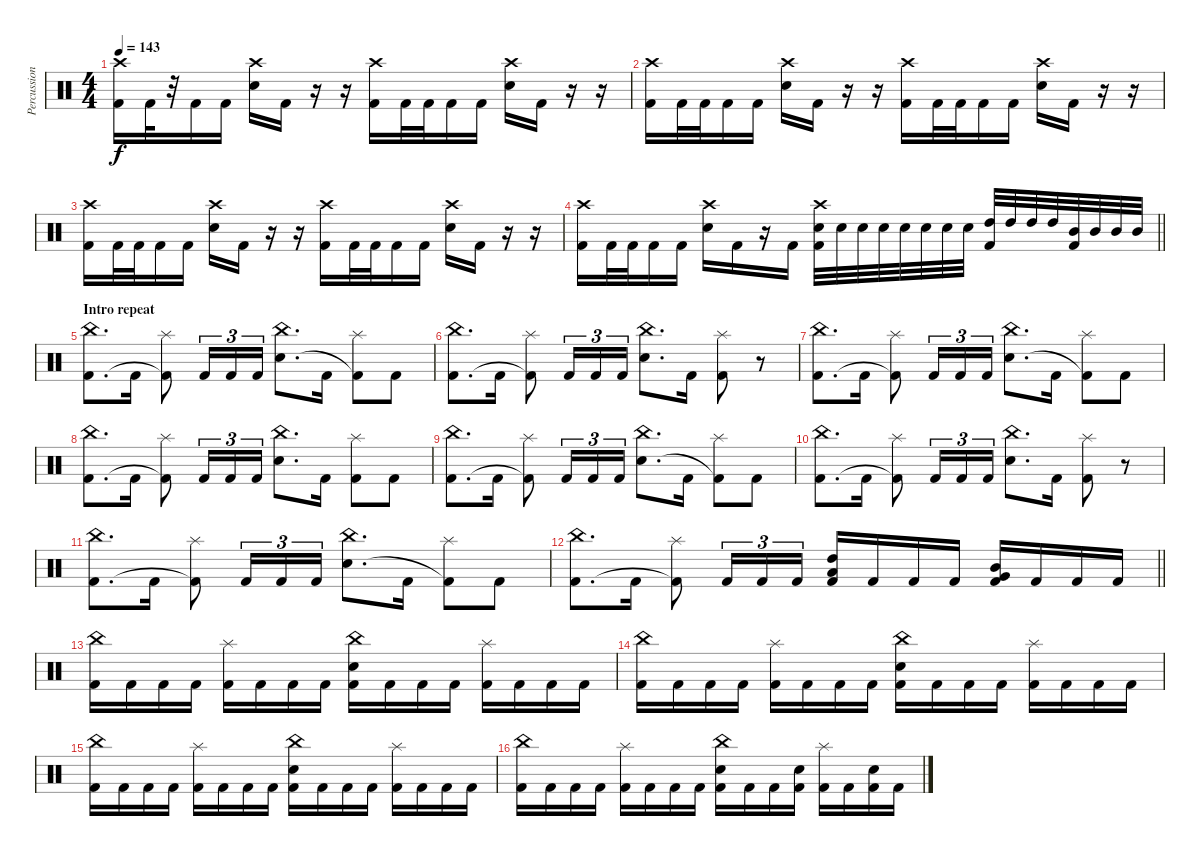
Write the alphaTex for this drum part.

\track ("Percussion" "Percussion") {instrument percussion}
\staff {score}
\articulation defaults
\ts (4 4)
\tempo 143
\clef neutral
\ks c
("Crash high (hit)" "Kick (hit) 2").16{dy f} "Kick (hit) 2".32 r.32 "Kick (hit) 2".16 "Kick (hit) 2".16 ("Crash high (hit)" "Electric Snare (hit)").16 "Kick (hit) 2".16 r.16 r.16 ("Crash high (hit)" "Kick (hit) 2").16 "Kick (hit) 2".32 "Kick (hit) 2".32 "Kick (hit) 2".16 "Kick (hit) 2".16 ("Crash high (hit)" "Electric Snare (hit)").16 "Kick (hit) 2".16 r.16 r.16 |
("Crash high (hit)" "Kick (hit) 2").16 "Kick (hit) 2".32 "Kick (hit) 2".32 "Kick (hit) 2".16 "Kick (hit) 2".16 ("Crash high (hit)" "Electric Snare (hit)").16 "Kick (hit) 2".16 r.16 r.16 ("Crash high (hit)" "Kick (hit) 2").16 "Kick (hit) 2".32 "Kick (hit) 2".32 "Kick (hit) 2".16 "Kick (hit) 2".16 ("Crash high (hit)" "Electric Snare (hit)").16 "Kick (hit) 2".16 r.16 r.16 |
("Crash high (hit)" "Kick (hit) 2").16 "Kick (hit) 2".32 "Kick (hit) 2".32 "Kick (hit) 2".16 "Kick (hit) 2".16 ("Crash high (hit)" "Electric Snare (hit)").16 "Kick (hit) 2".16 r.16 r.16 ("Crash high (hit)" "Kick (hit) 2").16 "Kick (hit) 2".32 "Kick (hit) 2".32 "Kick (hit) 2".16 "Kick (hit) 2".16 ("Crash high (hit)" "Electric Snare (hit)").16 "Kick (hit) 2".16 r.16 r.16 |
\barLineRight lightlight
("Crash high (hit)" "Kick (hit) 2").16 "Kick (hit) 2".32 "Kick (hit) 2".32 "Kick (hit) 2".16 "Kick (hit) 2".16 ("Crash high (hit)" "Electric Snare (hit)").16 "Kick (hit) 2".16 r.16 "Kick (hit) 2".16 ("Crash high (hit)" "Electric Snare (hit)" "Kick (hit) 2").32 "Electric Snare (hit)".32 "Electric Snare (hit)".32 "Electric Snare (hit)".32 "Electric Snare (hit)".32 "Electric Snare (hit)".32 "Electric Snare (hit)".32 "Electric Snare (hit)".32 ("High Tom (hit)" "Kick (hit) 2").32 "High Tom (hit)".32 "High Tom (hit)".32 "High Tom (hit)".32 ("Mid Tom (hit)" "Kick (hit) 2").32 "Mid Tom (hit)".32 "Mid Tom (hit)".32 "Mid Tom (hit)".32 |
\section ("" "Intro repeat")
("China (hit)" "Kick (hit) 2").8{d} "Kick (hit) 2".16 ("Splash (hit)" "Kick (hit) 2"{t}).8 "Kick (hit) 2".16{tu (3 2)} "Kick (hit) 2".16{tu (3 2)} "Kick (hit) 2".16{tu (3 2)} ("China (hit)" "Electric Snare (hit)").8{d} "Kick (hit) 2".16 ("Splash (hit)" "Kick (hit) 2"{t}).8 "Kick (hit) 2".8 |
("China (hit)" "Kick (hit) 2").8{d} "Kick (hit) 2".16 ("Splash (hit)" "Kick (hit) 2"{t}).8 "Kick (hit) 2".16{tu (3 2)} "Kick (hit) 2".16{tu (3 2)} "Kick (hit) 2".16{tu (3 2)} ("China (hit)" "Electric Snare (hit)").8{d} "Kick (hit) 2".16 ("Splash (hit)" "Kick (hit) 2").8 r.8 |
("China (hit)" "Kick (hit) 2").8{d} "Kick (hit) 2".16 ("Splash (hit)" "Kick (hit) 2"{t}).8 "Kick (hit) 2".16{tu (3 2)} "Kick (hit) 2".16{tu (3 2)} "Kick (hit) 2".16{tu (3 2)} ("China (hit)" "Electric Snare (hit)").8{d} "Kick (hit) 2".16 ("Splash (hit)" "Kick (hit) 2"{t}).8 "Kick (hit) 2".8 |
("China (hit)" "Kick (hit) 2").8{d} "Kick (hit) 2".16 ("Splash (hit)" "Kick (hit) 2"{t}).8 "Kick (hit) 2".16{tu (3 2)} "Kick (hit) 2".16{tu (3 2)} "Kick (hit) 2".16{tu (3 2)} ("China (hit)" "Electric Snare (hit)").8{d} "Kick (hit) 2".16 ("Splash (hit)" "Kick (hit) 2").8 "Kick (hit) 2".8 |
("China (hit)" "Kick (hit) 2").8{d} "Kick (hit) 2".16 ("Splash (hit)" "Kick (hit) 2"{t}).8 "Kick (hit) 2".16{tu (3 2)} "Kick (hit) 2".16{tu (3 2)} "Kick (hit) 2".16{tu (3 2)} ("China (hit)" "Electric Snare (hit)").8{d} "Kick (hit) 2".16 ("Splash (hit)" "Kick (hit) 2"{t}).8 "Kick (hit) 2".8 |
("China (hit)" "Kick (hit) 2").8{d} "Kick (hit) 2".16 ("Splash (hit)" "Kick (hit) 2"{t}).8 "Kick (hit) 2".16{tu (3 2)} "Kick (hit) 2".16{tu (3 2)} "Kick (hit) 2".16{tu (3 2)} ("China (hit)" "Electric Snare (hit)").8{d} "Kick (hit) 2".16 ("Splash (hit)" "Kick (hit) 2").8 r.8 |
("China (hit)" "Kick (hit) 2").8{d} "Kick (hit) 2".16 ("Splash (hit)" "Kick (hit) 2"{t}).8 "Kick (hit) 2".16{tu (3 2)} "Kick (hit) 2".16{tu (3 2)} "Kick (hit) 2".16{tu (3 2)} ("China (hit)" "Electric Snare (hit)").8{d} "Kick (hit) 2".16 ("Splash (hit)" "Kick (hit) 2"{t}).8 "Kick (hit) 2".8 |
\barLineRight lightlight
("China (hit)" "Kick (hit) 2").8{d} "Kick (hit) 2".16 ("Splash (hit)" "Kick (hit) 2"{t}).8 "Kick (hit) 2".16{tu (3 2)} "Kick (hit) 2".16{tu (3 2)} "Kick (hit) 2".16{tu (3 2)} ("High Tom (hit)" "Low Tom (hit)" "Kick (hit) 2").16 "Kick (hit) 2".16 "Kick (hit) 2".16 "Kick (hit) 2".16 ("Mid Tom (hit)" "Very Low Tom (hit)" "Kick (hit) 2").16 "Kick (hit) 2".16 "Kick (hit) 2".16 "Kick (hit) 2".16 |
("China (hit)" "Kick (hit) 2").16 "Kick (hit) 2".16 "Kick (hit) 2".16 "Kick (hit) 2".16 ("Splash (hit)" "Kick (hit) 2").16 "Kick (hit) 2".16 "Kick (hit) 2".16 "Kick (hit) 2".16 ("China (hit)" "Electric Snare (hit)" "Kick (hit) 2").16 "Kick (hit) 2".16 "Kick (hit) 2".16 "Kick (hit) 2".16 ("Splash (hit)" "Kick (hit) 2").16 "Kick (hit) 2".16 "Kick (hit) 2".16 "Kick (hit) 2".16 |
("China (hit)" "Kick (hit) 2").16 "Kick (hit) 2".16 "Kick (hit) 2".16 "Kick (hit) 2".16 ("Splash (hit)" "Kick (hit) 2").16 "Kick (hit) 2".16 "Kick (hit) 2".16 "Kick (hit) 2".16 ("China (hit)" "Electric Snare (hit)" "Kick (hit) 2").16 "Kick (hit) 2".16 "Kick (hit) 2".16 "Kick (hit) 2".16 ("Splash (hit)" "Kick (hit) 2").16 "Kick (hit) 2".16 "Kick (hit) 2".16 "Kick (hit) 2".16 |
("China (hit)" "Kick (hit) 2").16 "Kick (hit) 2".16 "Kick (hit) 2".16 "Kick (hit) 2".16 ("Splash (hit)" "Kick (hit) 2").16 "Kick (hit) 2".16 "Kick (hit) 2".16 "Kick (hit) 2".16 ("China (hit)" "Electric Snare (hit)" "Kick (hit) 2").16 "Kick (hit) 2".16 "Kick (hit) 2".16 "Kick (hit) 2".16 ("Splash (hit)" "Kick (hit) 2").16 "Kick (hit) 2".16 "Kick (hit) 2".16 "Kick (hit) 2".16 |
("China (hit)" "Kick (hit) 2").16 "Kick (hit) 2".16 "Kick (hit) 2".16 "Kick (hit) 2".16 ("Splash (hit)" "Kick (hit) 2").16 "Kick (hit) 2".16 "Kick (hit) 2".16 "Kick (hit) 2".16 ("China (hit)" "Electric Snare (hit)" "Kick (hit) 2").16 "Kick (hit) 2".16 "Kick (hit) 2".16 ("Electric Snare (hit)" "Kick (hit) 2").16 ("Splash (hit)" "Kick (hit) 2").16 "Kick (hit) 2".16 ("Electric Snare (hit)" "Kick (hit) 2").16 "Kick (hit) 2".16
